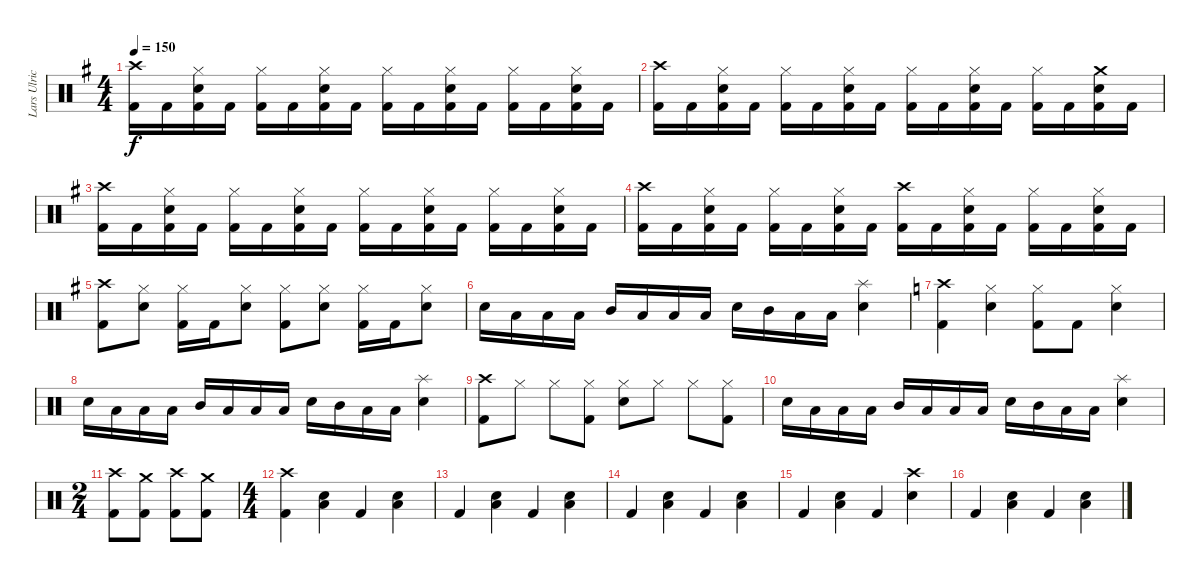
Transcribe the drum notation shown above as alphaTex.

\track ("Lars Ulrich" "Lars Ulric") {instrument percussion}
\staff {score}
\articulation defaults
\ts (4 4)
\tempo 150
\clef neutral
\ks g
("Crash high (hit)" "Kick (hit) 2").16{dy f} "Kick (hit) 2".16 ("Hi-Hat (closed)" "Snare (hit) 2" "Kick (hit) 2").16 "Kick (hit) 2".16 ("Hi-Hat (closed)" "Kick (hit) 2").16 "Kick (hit) 2".16 ("Hi-Hat (closed)" "Snare (hit) 2" "Kick (hit) 2").16 "Kick (hit) 2".16 ("Hi-Hat (closed)" "Kick (hit) 2").16 "Kick (hit) 2".16 ("Hi-Hat (closed)" "Snare (hit) 2" "Kick (hit) 2").16 "Kick (hit) 2".16 ("Hi-Hat (closed)" "Kick (hit) 2").16 "Kick (hit) 2".16 ("Hi-Hat (closed)" "Snare (hit) 2" "Kick (hit) 2").16 "Kick (hit) 2".16 |
("Crash high (hit)" "Kick (hit) 2").16 "Kick (hit) 2".16 ("Hi-Hat (closed)" "Snare (hit) 2" "Kick (hit) 2").16 "Kick (hit) 2".16 ("Hi-Hat (closed)" "Kick (hit) 2").16 "Kick (hit) 2".16 ("Hi-Hat (closed)" "Snare (hit) 2" "Kick (hit) 2").16 "Kick (hit) 2".16 ("Hi-Hat (closed)" "Kick (hit) 2").16 "Kick (hit) 2".16 ("Hi-Hat (closed)" "Snare (hit) 2" "Kick (hit) 2").16 "Kick (hit) 2".16 ("Hi-Hat (closed)" "Kick (hit) 2").16 "Kick (hit) 2".16 ("Crash medium (hit)" "Snare (hit) 2" "Kick (hit) 2").16 "Kick (hit) 2".16 |
("Crash high (hit)" "Kick (hit) 2").16 "Kick (hit) 2".16 ("Hi-Hat (closed)" "Snare (hit) 2" "Kick (hit) 2").16 "Kick (hit) 2".16 ("Hi-Hat (closed)" "Kick (hit) 2").16 "Kick (hit) 2".16 ("Hi-Hat (closed)" "Snare (hit) 2" "Kick (hit) 2").16 "Kick (hit) 2".16 ("Hi-Hat (closed)" "Kick (hit) 2").16 "Kick (hit) 2".16 ("Hi-Hat (closed)" "Snare (hit) 2" "Kick (hit) 2").16 "Kick (hit) 2".16 ("Hi-Hat (closed)" "Kick (hit) 2").16 "Kick (hit) 2".16 ("Hi-Hat (closed)" "Snare (hit) 2" "Kick (hit) 2").16 "Kick (hit) 2".16 |
("Crash high (hit)" "Kick (hit) 2").16 "Kick (hit) 2".16 ("Hi-Hat (closed)" "Snare (hit) 2" "Kick (hit) 2").16 "Kick (hit) 2".16 ("Hi-Hat (closed)" "Kick (hit) 2").16 "Kick (hit) 2".16 ("Hi-Hat (closed)" "Snare (hit) 2" "Kick (hit) 2").16 "Kick (hit) 2".16 ("Crash high (hit)" "Kick (hit) 2").16 "Kick (hit) 2".16 ("Hi-Hat (closed)" "Snare (hit) 2" "Kick (hit) 2").16 "Kick (hit) 2".16 ("Hi-Hat (closed)" "Kick (hit) 2").16 "Kick (hit) 2".16 ("Hi-Hat (closed)" "Snare (hit) 2" "Kick (hit) 2").16 "Kick (hit) 2".16 |
("Crash high (hit)" "Kick (hit) 2").8 ("Hi-Hat (closed)" "Snare (hit) 2").8 ("Hi-Hat (closed)" "Kick (hit) 2").16 "Kick (hit) 2".16 ("Hi-Hat (closed)" "Snare (hit) 2").8 ("Hi-Hat (closed)" "Kick (hit) 2").8 ("Hi-Hat (closed)" "Snare (hit) 2").8 ("Hi-Hat (closed)" "Kick (hit) 2").16 "Kick (hit) 2".16 ("Hi-Hat (closed)" "Snare (hit) 2").8 |
"Snare (hit) 2".16 "Low Tom (hit)".16 "Low Tom (hit)".16 "Low Tom (hit)".16 "Mid Tom (hit)".16 "Low Tom (hit)".16 "Low Tom (hit)".16 "Low Tom (hit)".16 "Snare (hit) 2".16 "Mid Tom (hit)".16 "Low Tom (hit)".16 "Low Tom (hit)".16 ("Splash (hit)" "Snare (hit) 2").4 |
\ks c
("Crash high (hit)" "Kick (hit) 2").4 ("Hi-Hat (closed)" "Snare (hit) 2").4 ("Hi-Hat (closed)" "Kick (hit) 2").8 "Kick (hit) 2".8 ("Hi-Hat (closed)" "Snare (hit) 2").4 |
"Snare (hit) 2".16 "Low Tom (hit)".16 "Low Tom (hit)".16 "Low Tom (hit)".16 "Mid Tom (hit)".16 "Low Tom (hit)".16 "Low Tom (hit)".16 "Low Tom (hit)".16 "Snare (hit) 2".16 "Mid Tom (hit)".16 "Low Tom (hit)".16 "Low Tom (hit)".16 ("Splash (hit)" "Snare (hit) 2").4 |
("Crash high (hit)" "Kick (hit) 2").8 "Hi-Hat (closed)".8 "Hi-Hat (closed)".8 ("Hi-Hat (closed)" "Kick (hit) 2").8 ("Hi-Hat (closed)" "Snare (hit) 2").8 "Hi-Hat (closed)".8 "Hi-Hat (closed)".8 ("Hi-Hat (closed)" "Kick (hit) 2").8 |
"Snare (hit) 2".16 "Low Tom (hit)".16 "Low Tom (hit)".16 "Low Tom (hit)".16 "Mid Tom (hit)".16 "Low Tom (hit)".16 "Low Tom (hit)".16 "Low Tom (hit)".16 "Snare (hit) 2".16 "Mid Tom (hit)".16 "Low Tom (hit)".16 "Low Tom (hit)".16 ("Splash (hit)" "Snare (hit) 2").4 |
\ts (2 4)
("Crash high (hit)" "Kick (hit) 2").8 ("Crash medium (hit)" "Kick (hit) 2").8 ("Crash high (hit)" "Kick (hit) 2").8 ("Crash medium (hit)" "Kick (hit) 2").8 |
\ts (4 4)
("Crash high (hit)" "Kick (hit) 2").4 ("Low Floor Tom (hit)" "Snare (hit) 2").4 "Kick (hit) 2".4 ("Low Floor Tom (hit)" "Snare (hit) 2").4 |
"Kick (hit) 2".4 ("Low Floor Tom (hit)" "Snare (hit) 2").4 "Kick (hit) 2".4 ("Low Floor Tom (hit)" "Snare (hit) 2").4 |
"Kick (hit) 2".4 ("Low Floor Tom (hit)" "Snare (hit) 2").4 "Kick (hit) 2".4 ("Low Floor Tom (hit)" "Snare (hit) 2").4 |
"Kick (hit) 2".4 ("Low Floor Tom (hit)" "Snare (hit) 2").4 "Kick (hit) 2".4 ("Crash high (hit)" "Snare (hit) 2").4 |
"Kick (hit) 2".4 ("Low Floor Tom (hit)" "Snare (hit) 2").4 "Kick (hit) 2".4 ("Low Floor Tom (hit)" "Snare (hit) 2").4
